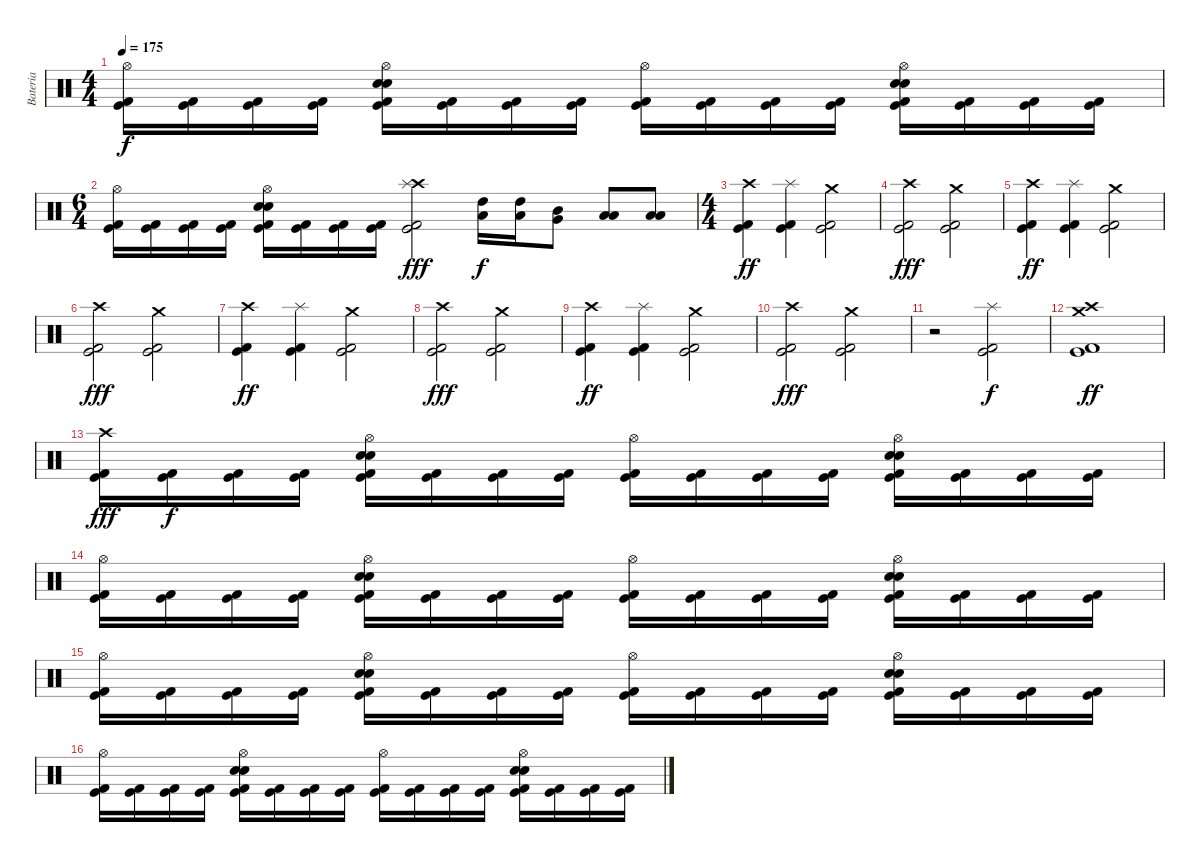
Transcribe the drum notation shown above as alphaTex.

\track ("Bateria" "Bateria") {instrument percussion}
\staff {score}
\articulation defaults
\ts (4 4)
\tempo 175
\clef neutral
\ks c
("Hi-Hat (open)" "Kick (hit) 2" "Kick (hit)").16{dy f} ("Kick (hit) 2" "Kick (hit)").16 ("Kick (hit) 2" "Kick (hit)").16 ("Kick (hit) 2" "Kick (hit)").16 ("Hi-Hat (open)" "Electric Snare (hit)" "Snare (hit) 2" "Kick (hit) 2" "Kick (hit)").16 ("Kick (hit) 2" "Kick (hit)").16 ("Kick (hit) 2" "Kick (hit)").16 ("Kick (hit) 2" "Kick (hit)").16 ("Hi-Hat (open)" "Kick (hit) 2" "Kick (hit)").16 ("Kick (hit) 2" "Kick (hit)").16 ("Kick (hit) 2" "Kick (hit)").16 ("Kick (hit) 2" "Kick (hit)").16 ("Hi-Hat (open)" "Electric Snare (hit)" "Snare (hit) 2" "Kick (hit) 2" "Kick (hit)").16 ("Kick (hit) 2" "Kick (hit)").16 ("Kick (hit) 2" "Kick (hit)").16 ("Kick (hit) 2" "Kick (hit)").16 |
\ts (6 4)
("Hi-Hat (open)" "Kick (hit) 2" "Kick (hit)").16 ("Kick (hit) 2" "Kick (hit)").16 ("Kick (hit) 2" "Kick (hit)").16 ("Kick (hit) 2" "Kick (hit)").16 ("Hi-Hat (open)" "Electric Snare (hit)" "Snare (hit) 2" "Kick (hit) 2" "Kick (hit)").16 ("Kick (hit) 2" "Kick (hit)").16 ("Kick (hit) 2" "Kick (hit)").16 ("Kick (hit) 2" "Kick (hit)").16 ("Crash high (hit)" "Splash (hit)" "Kick (hit) 2" "Kick (hit)").2{dy fff} ("High Tom (hit)" "Low Tom (hit)").16{dy f} ("High Tom (hit)" "Low Tom (hit)").16 ("Mid Tom (hit)" "Very Low Tom (hit)").8 ("Low Tom (hit)" "Low Floor Tom (hit)").8 ("Low Tom (hit)" "Low Floor Tom (hit)").8 |
\ts (4 4)
("Crash high (hit)" "Kick (hit) 2" "Kick (hit)").4{dy ff} ("Splash (hit)" "Kick (hit) 2" "Kick (hit)").4 ("Crash medium (hit)" "Kick (hit) 2" "Kick (hit)").2 |
("Crash high (hit)" "Kick (hit) 2" "Kick (hit)").2{dy fff} ("Crash medium (hit)" "Kick (hit) 2" "Kick (hit)").2 |
("Crash high (hit)" "Kick (hit) 2" "Kick (hit)").4{dy ff} ("Splash (hit)" "Kick (hit) 2" "Kick (hit)").4 ("Crash medium (hit)" "Kick (hit) 2" "Kick (hit)").2 |
("Crash high (hit)" "Kick (hit) 2" "Kick (hit)").2{dy fff} ("Crash medium (hit)" "Kick (hit) 2" "Kick (hit)").2 |
("Crash high (hit)" "Kick (hit) 2" "Kick (hit)").4{dy ff} ("Splash (hit)" "Kick (hit) 2" "Kick (hit)").4 ("Crash medium (hit)" "Kick (hit) 2" "Kick (hit)").2 |
("Crash high (hit)" "Kick (hit) 2" "Kick (hit)").2{dy fff} ("Crash medium (hit)" "Kick (hit) 2" "Kick (hit)").2 |
("Crash high (hit)" "Kick (hit) 2" "Kick (hit)").4{dy ff} ("Splash (hit)" "Kick (hit) 2" "Kick (hit)").4 ("Crash medium (hit)" "Kick (hit) 2" "Kick (hit)").2 |
("Crash high (hit)" "Kick (hit) 2" "Kick (hit)").2{dy fff} ("Crash medium (hit)" "Kick (hit) 2" "Kick (hit)").2 |
r.2 ("Splash (hit)" "Kick (hit) 2" "Kick (hit)").2{dy f} |
("Crash high (hit)" "Crash medium (hit)" "Kick (hit) 2" "Kick (hit)").1{dy ff} |
("Crash high (hit)" "Kick (hit) 2" "Kick (hit)").16{dy fff} ("Kick (hit) 2" "Kick (hit)").16{dy f} ("Kick (hit) 2" "Kick (hit)").16 ("Kick (hit) 2" "Kick (hit)").16 ("Hi-Hat (open)" "Electric Snare (hit)" "Snare (hit) 2" "Kick (hit) 2" "Kick (hit)").16 ("Kick (hit) 2" "Kick (hit)").16 ("Kick (hit) 2" "Kick (hit)").16 ("Kick (hit) 2" "Kick (hit)").16 ("Hi-Hat (open)" "Kick (hit) 2" "Kick (hit)").16 ("Kick (hit) 2" "Kick (hit)").16 ("Kick (hit) 2" "Kick (hit)").16 ("Kick (hit) 2" "Kick (hit)").16 ("Hi-Hat (open)" "Electric Snare (hit)" "Snare (hit) 2" "Kick (hit) 2" "Kick (hit)").16 ("Kick (hit) 2" "Kick (hit)").16 ("Kick (hit) 2" "Kick (hit)").16 ("Kick (hit) 2" "Kick (hit)").16 |
("Hi-Hat (open)" "Kick (hit) 2" "Kick (hit)").16 ("Kick (hit) 2" "Kick (hit)").16 ("Kick (hit) 2" "Kick (hit)").16 ("Kick (hit) 2" "Kick (hit)").16 ("Hi-Hat (open)" "Electric Snare (hit)" "Snare (hit) 2" "Kick (hit) 2" "Kick (hit)").16 ("Kick (hit) 2" "Kick (hit)").16 ("Kick (hit) 2" "Kick (hit)").16 ("Kick (hit) 2" "Kick (hit)").16 ("Hi-Hat (open)" "Kick (hit) 2" "Kick (hit)").16 ("Kick (hit) 2" "Kick (hit)").16 ("Kick (hit) 2" "Kick (hit)").16 ("Kick (hit) 2" "Kick (hit)").16 ("Hi-Hat (open)" "Electric Snare (hit)" "Snare (hit) 2" "Kick (hit) 2" "Kick (hit)").16 ("Kick (hit) 2" "Kick (hit)").16 ("Kick (hit) 2" "Kick (hit)").16 ("Kick (hit) 2" "Kick (hit)").16 |
("Hi-Hat (open)" "Kick (hit) 2" "Kick (hit)").16 ("Kick (hit) 2" "Kick (hit)").16 ("Kick (hit) 2" "Kick (hit)").16 ("Kick (hit) 2" "Kick (hit)").16 ("Hi-Hat (open)" "Electric Snare (hit)" "Snare (hit) 2" "Kick (hit) 2" "Kick (hit)").16 ("Kick (hit) 2" "Kick (hit)").16 ("Kick (hit) 2" "Kick (hit)").16 ("Kick (hit) 2" "Kick (hit)").16 ("Hi-Hat (open)" "Kick (hit) 2" "Kick (hit)").16 ("Kick (hit) 2" "Kick (hit)").16 ("Kick (hit) 2" "Kick (hit)").16 ("Kick (hit) 2" "Kick (hit)").16 ("Hi-Hat (open)" "Electric Snare (hit)" "Snare (hit) 2" "Kick (hit) 2" "Kick (hit)").16 ("Kick (hit) 2" "Kick (hit)").16 ("Kick (hit) 2" "Kick (hit)").16 ("Kick (hit) 2" "Kick (hit)").16 |
("Hi-Hat (open)" "Kick (hit) 2" "Kick (hit)").16 ("Kick (hit) 2" "Kick (hit)").16 ("Kick (hit) 2" "Kick (hit)").16 ("Kick (hit) 2" "Kick (hit)").16 ("Hi-Hat (open)" "Electric Snare (hit)" "Snare (hit) 2" "Kick (hit) 2" "Kick (hit)").16 ("Kick (hit) 2" "Kick (hit)").16 ("Kick (hit) 2" "Kick (hit)").16 ("Kick (hit) 2" "Kick (hit)").16 ("Hi-Hat (open)" "Kick (hit) 2" "Kick (hit)").16 ("Kick (hit) 2" "Kick (hit)").16 ("Kick (hit) 2" "Kick (hit)").16 ("Kick (hit) 2" "Kick (hit)").16 ("Hi-Hat (open)" "Electric Snare (hit)" "Snare (hit) 2" "Kick (hit) 2" "Kick (hit)").16 ("Kick (hit) 2" "Kick (hit)").16 ("Kick (hit) 2" "Kick (hit)").16 ("Kick (hit) 2" "Kick (hit)").16
